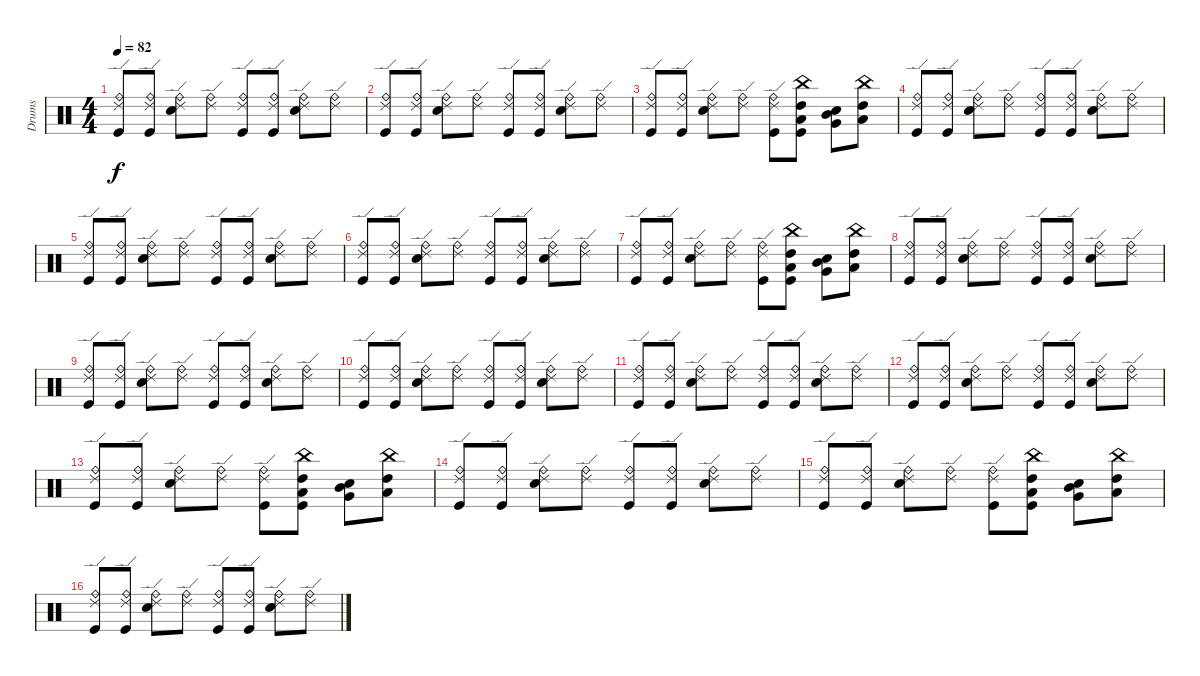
\track ("Drums" "Drums") {instrument percussion}
\staff {score}
\articulation defaults
\ts (4 4)
\tempo 82
\clef neutral
\ks c
("Ride (edge) 2" "Ride (bell)" "Kick (hit)").8{dy f} ("Kick (hit)" "Ride (bell)" "Ride (edge) 2").8 ("Snare (hit) 2" "Ride (bell)" "Ride (edge) 2").8 ("Ride (bell)" "Ride (edge) 2").8 ("Kick (hit)" "Ride (bell)" "Ride (edge) 2").8 ("Kick (hit)" "Ride (bell)" "Ride (edge) 2").8 ("Snare (hit) 2" "Ride (bell)" "Ride (edge) 2").8 ("Ride (bell)" "Ride (edge) 2").8 |
("Ride (edge) 2" "Ride (bell)" "Kick (hit)").8 ("Kick (hit)" "Ride (bell)" "Ride (edge) 2").8 ("Snare (hit) 2" "Ride (bell)" "Ride (edge) 2").8 ("Ride (bell)" "Ride (edge) 2").8 ("Kick (hit)" "Ride (bell)" "Ride (edge) 2").8 ("Kick (hit)" "Ride (bell)" "Ride (edge) 2").8 ("Snare (hit) 2" "Ride (bell)" "Ride (edge) 2").8 ("Ride (bell)" "Ride (edge) 2").8 |
("Ride (edge) 2" "Ride (bell)" "Kick (hit)").8 ("Kick (hit)" "Ride (bell)" "Ride (edge) 2").8 ("Snare (hit) 2" "Ride (bell)" "Ride (edge) 2").8 ("Ride (bell)" "Ride (edge) 2").8 ("Kick (hit)" "Ride (bell)" "Ride (edge) 2").8 ("Kick (hit)" "High Tom (hit)" "Low Tom (hit)" "China (hit)").8 ("Snare (hit) 2" "Very Low Tom (hit)" "Mid Tom (hit)").8 ("Low Tom (hit)" "High Tom (hit)" "China (hit)").8 |
("Ride (edge) 2" "Ride (bell)" "Kick (hit)").8 ("Kick (hit)" "Ride (bell)" "Ride (edge) 2").8 ("Snare (hit) 2" "Ride (bell)" "Ride (edge) 2").8 ("Ride (bell)" "Ride (edge) 2").8 ("Kick (hit)" "Ride (bell)" "Ride (edge) 2").8 ("Kick (hit)" "Ride (bell)" "Ride (edge) 2").8 ("Snare (hit) 2" "Ride (bell)" "Ride (edge) 2").8 ("Ride (bell)" "Ride (edge) 2").8 |
("Ride (edge) 2" "Ride (bell)" "Kick (hit)").8 ("Kick (hit)" "Ride (bell)" "Ride (edge) 2").8 ("Snare (hit) 2" "Ride (bell)" "Ride (edge) 2").8 ("Ride (bell)" "Ride (edge) 2").8 ("Kick (hit)" "Ride (bell)" "Ride (edge) 2").8 ("Kick (hit)" "Ride (bell)" "Ride (edge) 2").8 ("Snare (hit) 2" "Ride (bell)" "Ride (edge) 2").8 ("Ride (bell)" "Ride (edge) 2").8 |
("Ride (edge) 2" "Ride (bell)" "Kick (hit)").8 ("Kick (hit)" "Ride (bell)" "Ride (edge) 2").8 ("Snare (hit) 2" "Ride (bell)" "Ride (edge) 2").8 ("Ride (bell)" "Ride (edge) 2").8 ("Kick (hit)" "Ride (bell)" "Ride (edge) 2").8 ("Kick (hit)" "Ride (bell)" "Ride (edge) 2").8 ("Snare (hit) 2" "Ride (bell)" "Ride (edge) 2").8 ("Ride (bell)" "Ride (edge) 2").8 |
("Ride (edge) 2" "Ride (bell)" "Kick (hit)").8 ("Kick (hit)" "Ride (bell)" "Ride (edge) 2").8 ("Snare (hit) 2" "Ride (bell)" "Ride (edge) 2").8 ("Ride (bell)" "Ride (edge) 2").8 ("Kick (hit)" "Ride (bell)" "Ride (edge) 2").8 ("Kick (hit)" "High Tom (hit)" "Low Tom (hit)" "China (hit)").8 ("Snare (hit) 2" "Very Low Tom (hit)" "Mid Tom (hit)").8 ("Low Tom (hit)" "High Tom (hit)" "China (hit)").8 |
("Ride (edge) 2" "Ride (bell)" "Kick (hit)").8 ("Kick (hit)" "Ride (bell)" "Ride (edge) 2").8 ("Snare (hit) 2" "Ride (bell)" "Ride (edge) 2").8 ("Ride (bell)" "Ride (edge) 2").8 ("Kick (hit)" "Ride (bell)" "Ride (edge) 2").8 ("Kick (hit)" "Ride (bell)" "Ride (edge) 2").8 ("Snare (hit) 2" "Ride (bell)" "Ride (edge) 2").8 ("Ride (bell)" "Ride (edge) 2").8 |
("Ride (edge) 2" "Ride (bell)" "Kick (hit)").8 ("Kick (hit)" "Ride (bell)" "Ride (edge) 2").8 ("Snare (hit) 2" "Ride (bell)" "Ride (edge) 2").8 ("Ride (bell)" "Ride (edge) 2").8 ("Kick (hit)" "Ride (bell)" "Ride (edge) 2").8 ("Kick (hit)" "Ride (bell)" "Ride (edge) 2").8 ("Snare (hit) 2" "Ride (bell)" "Ride (edge) 2").8 ("Ride (bell)" "Ride (edge) 2").8 |
("Ride (edge) 2" "Ride (bell)" "Kick (hit)").8 ("Kick (hit)" "Ride (bell)" "Ride (edge) 2").8 ("Snare (hit) 2" "Ride (bell)" "Ride (edge) 2").8 ("Ride (bell)" "Ride (edge) 2").8 ("Kick (hit)" "Ride (bell)" "Ride (edge) 2").8 ("Kick (hit)" "Ride (bell)" "Ride (edge) 2").8 ("Snare (hit) 2" "Ride (bell)" "Ride (edge) 2").8 ("Ride (bell)" "Ride (edge) 2").8 |
("Ride (edge) 2" "Ride (bell)" "Kick (hit)").8 ("Kick (hit)" "Ride (bell)" "Ride (edge) 2").8 ("Snare (hit) 2" "Ride (bell)" "Ride (edge) 2").8 ("Ride (bell)" "Ride (edge) 2").8 ("Kick (hit)" "Ride (bell)" "Ride (edge) 2").8 ("Kick (hit)" "Ride (bell)" "Ride (edge) 2").8 ("Snare (hit) 2" "Ride (bell)" "Ride (edge) 2").8 ("Ride (bell)" "Ride (edge) 2").8 |
("Ride (edge) 2" "Ride (bell)" "Kick (hit)").8 ("Kick (hit)" "Ride (bell)" "Ride (edge) 2").8 ("Snare (hit) 2" "Ride (bell)" "Ride (edge) 2").8 ("Ride (bell)" "Ride (edge) 2").8 ("Kick (hit)" "Ride (bell)" "Ride (edge) 2").8 ("Kick (hit)" "Ride (bell)" "Ride (edge) 2").8 ("Snare (hit) 2" "Ride (bell)" "Ride (edge) 2").8 ("Ride (bell)" "Ride (edge) 2").8 |
("Ride (edge) 2" "Ride (bell)" "Kick (hit)").8 ("Kick (hit)" "Ride (bell)" "Ride (edge) 2").8 ("Snare (hit) 2" "Ride (bell)" "Ride (edge) 2").8 ("Ride (bell)" "Ride (edge) 2").8 ("Kick (hit)" "Ride (bell)" "Ride (edge) 2").8 ("Kick (hit)" "High Tom (hit)" "Low Tom (hit)" "China (hit)").8 ("Snare (hit) 2" "Very Low Tom (hit)" "Mid Tom (hit)").8 ("Low Tom (hit)" "High Tom (hit)" "China (hit)").8 |
("Ride (edge) 2" "Ride (bell)" "Kick (hit)").8 ("Kick (hit)" "Ride (bell)" "Ride (edge) 2").8 ("Snare (hit) 2" "Ride (bell)" "Ride (edge) 2").8 ("Ride (bell)" "Ride (edge) 2").8 ("Kick (hit)" "Ride (bell)" "Ride (edge) 2").8 ("Kick (hit)" "Ride (bell)" "Ride (edge) 2").8 ("Snare (hit) 2" "Ride (bell)" "Ride (edge) 2").8 ("Ride (bell)" "Ride (edge) 2").8 |
("Ride (edge) 2" "Ride (bell)" "Kick (hit)").8 ("Kick (hit)" "Ride (bell)" "Ride (edge) 2").8 ("Snare (hit) 2" "Ride (bell)" "Ride (edge) 2").8 ("Ride (bell)" "Ride (edge) 2").8 ("Kick (hit)" "Ride (bell)" "Ride (edge) 2").8 ("Kick (hit)" "High Tom (hit)" "Low Tom (hit)" "China (hit)").8 ("Snare (hit) 2" "Very Low Tom (hit)" "Mid Tom (hit)").8 ("Low Tom (hit)" "High Tom (hit)" "China (hit)").8 |
("Ride (edge) 2" "Ride (bell)" "Kick (hit)").8 ("Kick (hit)" "Ride (bell)" "Ride (edge) 2").8 ("Snare (hit) 2" "Ride (bell)" "Ride (edge) 2").8 ("Ride (bell)" "Ride (edge) 2").8 ("Kick (hit)" "Ride (bell)" "Ride (edge) 2").8 ("Kick (hit)" "Ride (bell)" "Ride (edge) 2").8 ("Snare (hit) 2" "Ride (bell)" "Ride (edge) 2").8 ("Ride (bell)" "Ride (edge) 2").8
